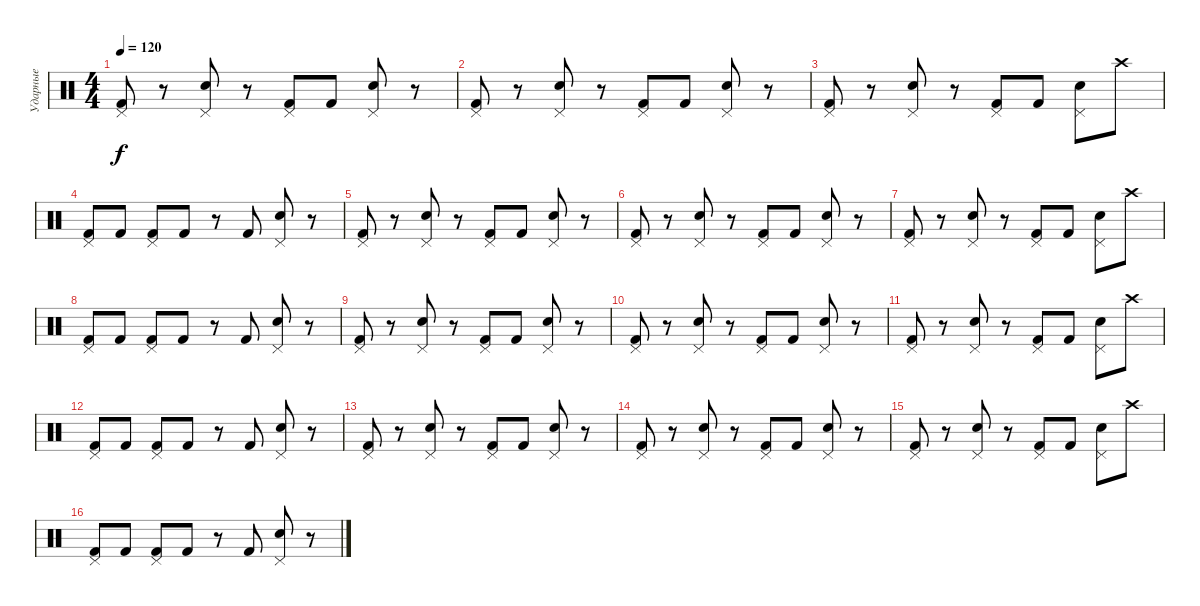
\track ("Ударные" "Ударные") {instrument percussion}
\staff {score}
\articulation defaults
\ts (4 4)
\tempo 120
\clef neutral
\ks c
("Pedal Hi-Hat (hit)" "Kick (hit) 2").8{dy f} r.8 ("Pedal Hi-Hat (hit)" "Snare (hit) 2").8 r.8 ("Pedal Hi-Hat (hit)" "Kick (hit) 2").8 "Kick (hit) 2".8 ("Pedal Hi-Hat (hit)" "Snare (hit) 2").8 r.8 |
("Pedal Hi-Hat (hit)" "Kick (hit) 2").8 r.8 ("Pedal Hi-Hat (hit)" "Snare (hit) 2").8 r.8 ("Pedal Hi-Hat (hit)" "Kick (hit) 2").8 "Kick (hit) 2".8 ("Pedal Hi-Hat (hit)" "Snare (hit) 2").8 r.8 |
("Pedal Hi-Hat (hit)" "Kick (hit) 2").8 r.8 ("Pedal Hi-Hat (hit)" "Snare (hit) 2").8 r.8 ("Pedal Hi-Hat (hit)" "Kick (hit) 2").8 "Kick (hit) 2".8 ("Pedal Hi-Hat (hit)" "Snare (hit) 2").8 "Crash high (hit)".8 |
("Pedal Hi-Hat (hit)" "Kick (hit) 2").8 "Kick (hit) 2".8 ("Pedal Hi-Hat (hit)" "Kick (hit) 2").8 "Kick (hit) 2".8 r.8 "Kick (hit) 2".8 ("Pedal Hi-Hat (hit)" "Snare (hit) 2").8 r.8 |
("Pedal Hi-Hat (hit)" "Kick (hit) 2").8 r.8 ("Pedal Hi-Hat (hit)" "Snare (hit) 2").8 r.8 ("Pedal Hi-Hat (hit)" "Kick (hit) 2").8 "Kick (hit) 2".8 ("Pedal Hi-Hat (hit)" "Snare (hit) 2").8 r.8 |
("Pedal Hi-Hat (hit)" "Kick (hit) 2").8 r.8 ("Pedal Hi-Hat (hit)" "Snare (hit) 2").8 r.8 ("Pedal Hi-Hat (hit)" "Kick (hit) 2").8 "Kick (hit) 2".8 ("Pedal Hi-Hat (hit)" "Snare (hit) 2").8 r.8 |
("Pedal Hi-Hat (hit)" "Kick (hit) 2").8 r.8 ("Pedal Hi-Hat (hit)" "Snare (hit) 2").8 r.8 ("Pedal Hi-Hat (hit)" "Kick (hit) 2").8 "Kick (hit) 2".8 ("Pedal Hi-Hat (hit)" "Snare (hit) 2").8 "Crash high (hit)".8 |
("Pedal Hi-Hat (hit)" "Kick (hit) 2").8 "Kick (hit) 2".8 ("Pedal Hi-Hat (hit)" "Kick (hit) 2").8 "Kick (hit) 2".8 r.8 "Kick (hit) 2".8 ("Pedal Hi-Hat (hit)" "Snare (hit) 2").8 r.8 |
("Pedal Hi-Hat (hit)" "Kick (hit) 2").8 r.8 ("Pedal Hi-Hat (hit)" "Snare (hit) 2").8 r.8 ("Pedal Hi-Hat (hit)" "Kick (hit) 2").8 "Kick (hit) 2".8 ("Pedal Hi-Hat (hit)" "Snare (hit) 2").8 r.8 |
("Pedal Hi-Hat (hit)" "Kick (hit) 2").8 r.8 ("Pedal Hi-Hat (hit)" "Snare (hit) 2").8 r.8 ("Pedal Hi-Hat (hit)" "Kick (hit) 2").8 "Kick (hit) 2".8 ("Pedal Hi-Hat (hit)" "Snare (hit) 2").8 r.8 |
("Pedal Hi-Hat (hit)" "Kick (hit) 2").8 r.8 ("Pedal Hi-Hat (hit)" "Snare (hit) 2").8 r.8 ("Pedal Hi-Hat (hit)" "Kick (hit) 2").8 "Kick (hit) 2".8 ("Pedal Hi-Hat (hit)" "Snare (hit) 2").8 "Crash high (hit)".8 |
("Pedal Hi-Hat (hit)" "Kick (hit) 2").8 "Kick (hit) 2".8 ("Pedal Hi-Hat (hit)" "Kick (hit) 2").8 "Kick (hit) 2".8 r.8 "Kick (hit) 2".8 ("Pedal Hi-Hat (hit)" "Snare (hit) 2").8 r.8 |
("Pedal Hi-Hat (hit)" "Kick (hit) 2").8 r.8 ("Pedal Hi-Hat (hit)" "Snare (hit) 2").8 r.8 ("Pedal Hi-Hat (hit)" "Kick (hit) 2").8 "Kick (hit) 2".8 ("Pedal Hi-Hat (hit)" "Snare (hit) 2").8 r.8 |
("Pedal Hi-Hat (hit)" "Kick (hit) 2").8 r.8 ("Pedal Hi-Hat (hit)" "Snare (hit) 2").8 r.8 ("Pedal Hi-Hat (hit)" "Kick (hit) 2").8 "Kick (hit) 2".8 ("Pedal Hi-Hat (hit)" "Snare (hit) 2").8 r.8 |
("Pedal Hi-Hat (hit)" "Kick (hit) 2").8 r.8 ("Pedal Hi-Hat (hit)" "Snare (hit) 2").8 r.8 ("Pedal Hi-Hat (hit)" "Kick (hit) 2").8 "Kick (hit) 2".8 ("Pedal Hi-Hat (hit)" "Snare (hit) 2").8 "Crash high (hit)".8 |
("Pedal Hi-Hat (hit)" "Kick (hit) 2").8 "Kick (hit) 2".8 ("Pedal Hi-Hat (hit)" "Kick (hit) 2").8 "Kick (hit) 2".8 r.8 "Kick (hit) 2".8 ("Pedal Hi-Hat (hit)" "Snare (hit) 2").8 r.8
